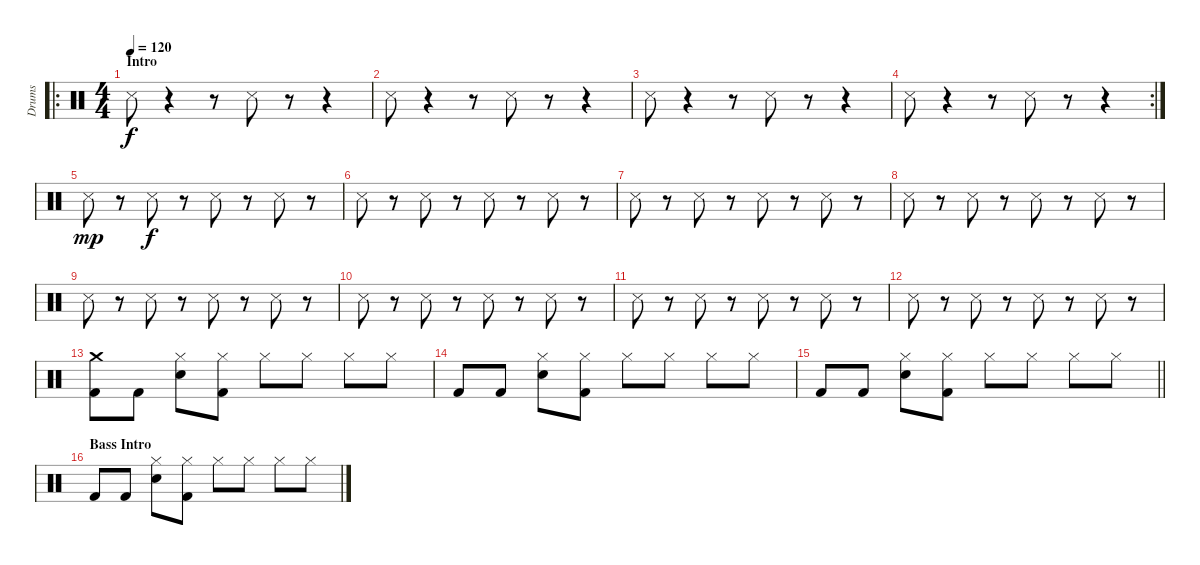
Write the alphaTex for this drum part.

\track ("Drums" "Drums") {instrument percussion}
\staff {score}
\articulation defaults
\ro
\ts (4 4)
\section ("" "Intro")
\tempo 120
\clef neutral
\ks c "Snare (side stick) 3".8{dy f}
r.4 r.8 "Snare (side stick) 3".8 r.8 r.4 |
"Snare (side stick) 3".8 r.4 r.8 "Snare (side stick) 3".8 r.8 r.4 |
"Snare (side stick) 3".8 r.4 r.8 "Snare (side stick) 3".8 r.8 r.4 |
\rc 2 "Snare (side stick) 3".8
r.4 r.8 "Snare (side stick) 3".8 r.8 r.4 |
"Snare (side stick) 3".8{dy mp} r.8 "Snare (side stick) 3".8{dy f} r.8 "Snare (side stick) 3".8 r.8 "Snare (side stick) 3".8 r.8 |
"Snare (side stick) 3".8 r.8 "Snare (side stick) 3".8 r.8 "Snare (side stick) 3".8 r.8 "Snare (side stick) 3".8 r.8 |
"Snare (side stick) 3".8 r.8 "Snare (side stick) 3".8 r.8 "Snare (side stick) 3".8 r.8 "Snare (side stick) 3".8 r.8 |
"Snare (side stick) 3".8 r.8 "Snare (side stick) 3".8 r.8 "Snare (side stick) 3".8 r.8 "Snare (side stick) 3".8 r.8 |
"Snare (side stick) 3".8 r.8 "Snare (side stick) 3".8 r.8 "Snare (side stick) 3".8 r.8 "Snare (side stick) 3".8 r.8 |
"Snare (side stick) 3".8 r.8 "Snare (side stick) 3".8 r.8 "Snare (side stick) 3".8 r.8 "Snare (side stick) 3".8 r.8 |
"Snare (side stick) 3".8 r.8 "Snare (side stick) 3".8 r.8 "Snare (side stick) 3".8 r.8 "Snare (side stick) 3".8 r.8 |
"Snare (side stick) 3".8 r.8 "Snare (side stick) 3".8 r.8 "Snare (side stick) 3".8 r.8 "Snare (side stick) 3".8 r.8 |
("Crash medium (hit)" "Kick (hit) 2").8 "Kick (hit) 2".8 ("Hi-Hat (closed)" "Snare (hit) 2").8 ("Hi-Hat (closed)" "Kick (hit) 2").8 "Hi-Hat (closed)".8 "Hi-Hat (closed)".8 "Hi-Hat (closed)".8 "Hi-Hat (closed)".8 |
"Kick (hit) 2".8 "Kick (hit) 2".8 ("Hi-Hat (closed)" "Snare (hit) 2").8 ("Hi-Hat (closed)" "Kick (hit) 2").8 "Hi-Hat (closed)".8 "Hi-Hat (closed)".8 "Hi-Hat (closed)".8 "Hi-Hat (closed)".8 |
\barLineRight lightlight "Kick (hit) 2".8 "Kick (hit) 2".8
("Hi-Hat (closed)" "Snare (hit) 2").8 ("Hi-Hat (closed)" "Kick (hit) 2").8 "Hi-Hat (closed)".8 "Hi-Hat (closed)".8 "Hi-Hat (closed)".8 "Hi-Hat (closed)".8 |
\section ("" "Bass Intro")
"Kick (hit) 2".8 "Kick (hit) 2".8 ("Hi-Hat (closed)" "Snare (hit) 2").8 ("Hi-Hat (closed)" "Kick (hit) 2").8 "Hi-Hat (closed)".8 "Hi-Hat (closed)".8 "Hi-Hat (closed)".8 "Hi-Hat (closed)".8
